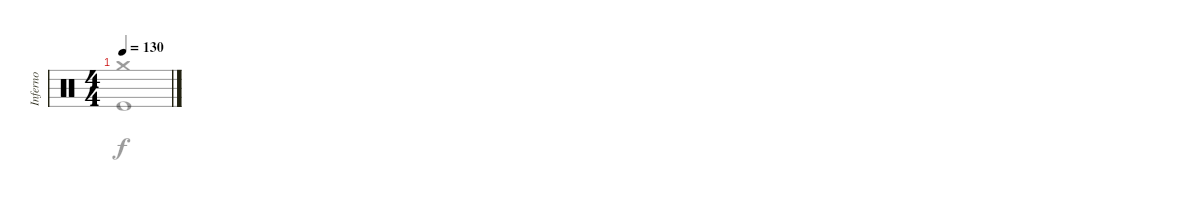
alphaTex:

\track ("Inferno" "Inferno") {instrument percussion}
\staff {score}
\articulation defaults
\voice
\ts (4 4)
\tempo 130
\clef neutral
\ks c
|
|
|
|
|
|
|
|
|
|
|
|
|
|
|
\voice
\clef neutral
\ks c
("Kick (hit)" "Crash medium (hit)").1{dy f} |
|
|
|
|
|
|
|
|
|
|
|
|
|
|
